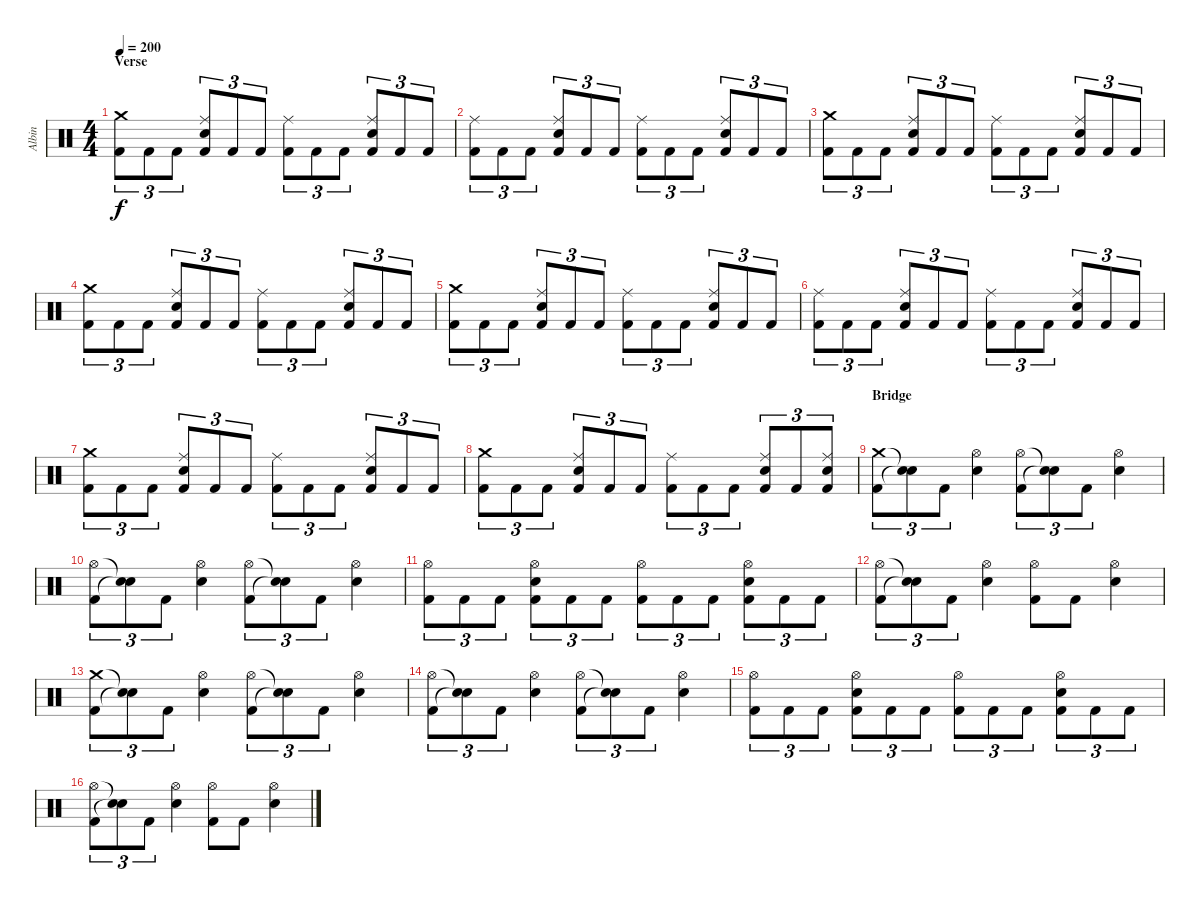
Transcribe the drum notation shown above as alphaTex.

\track ("Albin" "Albin") {instrument percussion}
\staff {score}
\articulation defaults
\ts (4 4)
\section ("" "Verse")
\tempo 200
\clef neutral
\ks c
("Crash medium (hit)" "Kick (hit) 2").8{tu (3 2) dy f} "Kick (hit) 2".8{tu (3 2)} "Kick (hit) 2".8{tu (3 2)} ("Ride (middle)" "Electric Snare (hit)" "Kick (hit) 2").8{tu (3 2)} "Kick (hit) 2".8{tu (3 2)} "Kick (hit) 2".8{tu (3 2)} ("Ride (middle)" "Kick (hit) 2").8{tu (3 2)} "Kick (hit) 2".8{tu (3 2)} "Kick (hit) 2".8{tu (3 2)} ("Ride (middle)" "Electric Snare (hit)" "Kick (hit) 2").8{tu (3 2)} "Kick (hit) 2".8{tu (3 2)} "Kick (hit) 2".8{tu (3 2)} |
("Ride (middle)" "Kick (hit) 2").8{tu (3 2)} "Kick (hit) 2".8{tu (3 2)} "Kick (hit) 2".8{tu (3 2)} ("Ride (middle)" "Electric Snare (hit)" "Kick (hit) 2").8{tu (3 2)} "Kick (hit) 2".8{tu (3 2)} "Kick (hit) 2".8{tu (3 2)} ("Ride (middle)" "Kick (hit) 2").8{tu (3 2)} "Kick (hit) 2".8{tu (3 2)} "Kick (hit) 2".8{tu (3 2)} ("Ride (middle)" "Electric Snare (hit)" "Kick (hit) 2").8{tu (3 2)} "Kick (hit) 2".8{tu (3 2)} "Kick (hit) 2".8{tu (3 2)} |
("Crash medium (hit)" "Kick (hit) 2").8{tu (3 2)} "Kick (hit) 2".8{tu (3 2)} "Kick (hit) 2".8{tu (3 2)} ("Ride (middle)" "Electric Snare (hit)" "Kick (hit) 2").8{tu (3 2)} "Kick (hit) 2".8{tu (3 2)} "Kick (hit) 2".8{tu (3 2)} ("Ride (middle)" "Kick (hit) 2").8{tu (3 2)} "Kick (hit) 2".8{tu (3 2)} "Kick (hit) 2".8{tu (3 2)} ("Ride (middle)" "Electric Snare (hit)" "Kick (hit) 2").8{tu (3 2)} "Kick (hit) 2".8{tu (3 2)} "Kick (hit) 2".8{tu (3 2)} |
("Crash medium (hit)" "Kick (hit) 2").8{tu (3 2)} "Kick (hit) 2".8{tu (3 2)} "Kick (hit) 2".8{tu (3 2)} ("Ride (middle)" "Electric Snare (hit)" "Kick (hit) 2").8{tu (3 2)} "Kick (hit) 2".8{tu (3 2)} "Kick (hit) 2".8{tu (3 2)} ("Ride (middle)" "Kick (hit) 2").8{tu (3 2)} "Kick (hit) 2".8{tu (3 2)} "Kick (hit) 2".8{tu (3 2)} ("Ride (middle)" "Electric Snare (hit)" "Kick (hit) 2").8{tu (3 2)} "Kick (hit) 2".8{tu (3 2)} "Kick (hit) 2".8{tu (3 2)} |
("Crash medium (hit)" "Kick (hit) 2").8{tu (3 2)} "Kick (hit) 2".8{tu (3 2)} "Kick (hit) 2".8{tu (3 2)} ("Ride (middle)" "Electric Snare (hit)" "Kick (hit) 2").8{tu (3 2)} "Kick (hit) 2".8{tu (3 2)} "Kick (hit) 2".8{tu (3 2)} ("Ride (middle)" "Kick (hit) 2").8{tu (3 2)} "Kick (hit) 2".8{tu (3 2)} "Kick (hit) 2".8{tu (3 2)} ("Ride (middle)" "Electric Snare (hit)" "Kick (hit) 2").8{tu (3 2)} "Kick (hit) 2".8{tu (3 2)} "Kick (hit) 2".8{tu (3 2)} |
("Ride (middle)" "Kick (hit) 2").8{tu (3 2)} "Kick (hit) 2".8{tu (3 2)} "Kick (hit) 2".8{tu (3 2)} ("Ride (middle)" "Electric Snare (hit)" "Kick (hit) 2").8{tu (3 2)} "Kick (hit) 2".8{tu (3 2)} "Kick (hit) 2".8{tu (3 2)} ("Ride (middle)" "Kick (hit) 2").8{tu (3 2)} "Kick (hit) 2".8{tu (3 2)} "Kick (hit) 2".8{tu (3 2)} ("Ride (middle)" "Electric Snare (hit)" "Kick (hit) 2").8{tu (3 2)} "Kick (hit) 2".8{tu (3 2)} "Kick (hit) 2".8{tu (3 2)} |
("Crash medium (hit)" "Kick (hit) 2").8{tu (3 2)} "Kick (hit) 2".8{tu (3 2)} "Kick (hit) 2".8{tu (3 2)} ("Ride (middle)" "Electric Snare (hit)" "Kick (hit) 2").8{tu (3 2)} "Kick (hit) 2".8{tu (3 2)} "Kick (hit) 2".8{tu (3 2)} ("Ride (middle)" "Kick (hit) 2").8{tu (3 2)} "Kick (hit) 2".8{tu (3 2)} "Kick (hit) 2".8{tu (3 2)} ("Ride (middle)" "Electric Snare (hit)" "Kick (hit) 2").8{tu (3 2)} "Kick (hit) 2".8{tu (3 2)} "Kick (hit) 2".8{tu (3 2)} |
("Crash medium (hit)" "Kick (hit) 2").8{tu (3 2)} "Kick (hit) 2".8{tu (3 2)} "Kick (hit) 2".8{tu (3 2)} ("Ride (middle)" "Electric Snare (hit)" "Kick (hit) 2").8{tu (3 2)} "Kick (hit) 2".8{tu (3 2)} "Kick (hit) 2".8{tu (3 2)} ("Ride (middle)" "Kick (hit) 2").8{tu (3 2)} "Kick (hit) 2".8{tu (3 2)} "Kick (hit) 2".8{tu (3 2)} ("Ride (middle)" "Electric Snare (hit)" "Kick (hit) 2").8{tu (3 2)} "Kick (hit) 2".8{tu (3 2)} ("Ride (middle)" "Electric Snare (hit)" "Kick (hit) 2").8{tu (3 2)} |
\section ("" "Bridge")
("Crash medium (hit)" "Kick (hit) 2").8{tu (3 2)} ("Snare (hit)"{t} "Snare (hit)"{t}).8{tu (3 2)} "Kick (hit) 2".8{tu (3 2)} ("Hi-Hat (open)" "Electric Snare (hit)").4 ("Hi-Hat (open)" "Kick (hit) 2").8{tu (3 2)} ("Snare (hit)"{t} "Snare (hit)"{t}).8{tu (3 2)} "Kick (hit) 2".8{tu (3 2)} ("Hi-Hat (open)" "Electric Snare (hit)").4 |
("Hi-Hat (open)" "Kick (hit) 2").8{tu (3 2)} ("Snare (hit)"{t} "Snare (hit)"{t}).8{tu (3 2)} "Kick (hit) 2".8{tu (3 2)} ("Hi-Hat (open)" "Electric Snare (hit)").4 ("Hi-Hat (open)" "Kick (hit) 2").8{tu (3 2)} ("Snare (hit)"{t} "Snare (hit)"{t}).8{tu (3 2)} "Kick (hit) 2".8{tu (3 2)} ("Hi-Hat (open)" "Electric Snare (hit)").4 |
("Hi-Hat (open)" "Kick (hit) 2").8{tu (3 2)} "Kick (hit) 2".8{tu (3 2)} "Kick (hit) 2".8{tu (3 2)} ("Hi-Hat (open)" "Electric Snare (hit)" "Kick (hit) 2").8{tu (3 2)} "Kick (hit) 2".8{tu (3 2)} "Kick (hit) 2".8{tu (3 2)} ("Hi-Hat (open)" "Kick (hit) 2").8{tu (3 2)} "Kick (hit) 2".8{tu (3 2)} "Kick (hit) 2".8{tu (3 2)} ("Hi-Hat (open)" "Electric Snare (hit)" "Kick (hit) 2").8{tu (3 2)} "Kick (hit) 2".8{tu (3 2)} "Kick (hit) 2".8{tu (3 2)} |
("Hi-Hat (open)" "Kick (hit) 2").8{tu (3 2)} ("Snare (hit)"{t} "Snare (hit)"{t}).8{tu (3 2)} "Kick (hit) 2".8{tu (3 2)} ("Hi-Hat (open)" "Electric Snare (hit)").4 ("Hi-Hat (open)" "Kick (hit) 2").8 "Kick (hit) 2".8 ("Hi-Hat (open)" "Electric Snare (hit)").4 |
("Crash medium (hit)" "Kick (hit) 2").8{tu (3 2)} ("Snare (hit)"{t} "Snare (hit)"{t}).8{tu (3 2)} "Kick (hit) 2".8{tu (3 2)} ("Hi-Hat (open)" "Electric Snare (hit)").4 ("Hi-Hat (open)" "Kick (hit) 2").8{tu (3 2)} ("Snare (hit)"{t} "Snare (hit)"{t}).8{tu (3 2)} "Kick (hit) 2".8{tu (3 2)} ("Hi-Hat (open)" "Electric Snare (hit)").4 |
("Hi-Hat (open)" "Kick (hit) 2").8{tu (3 2)} ("Snare (hit)"{t} "Snare (hit)"{t}).8{tu (3 2)} "Kick (hit) 2".8{tu (3 2)} ("Hi-Hat (open)" "Electric Snare (hit)").4 ("Hi-Hat (open)" "Kick (hit) 2").8{tu (3 2)} ("Snare (hit)"{t} "Snare (hit)"{t}).8{tu (3 2)} "Kick (hit) 2".8{tu (3 2)} ("Hi-Hat (open)" "Electric Snare (hit)").4 |
("Hi-Hat (open)" "Kick (hit) 2").8{tu (3 2)} "Kick (hit) 2".8{tu (3 2)} "Kick (hit) 2".8{tu (3 2)} ("Hi-Hat (open)" "Electric Snare (hit)" "Kick (hit) 2").8{tu (3 2)} "Kick (hit) 2".8{tu (3 2)} "Kick (hit) 2".8{tu (3 2)} ("Hi-Hat (open)" "Kick (hit) 2").8{tu (3 2)} "Kick (hit) 2".8{tu (3 2)} "Kick (hit) 2".8{tu (3 2)} ("Hi-Hat (open)" "Electric Snare (hit)" "Kick (hit) 2").8{tu (3 2)} "Kick (hit) 2".8{tu (3 2)} "Kick (hit) 2".8{tu (3 2)} |
("Hi-Hat (open)" "Kick (hit) 2").8{tu (3 2)} ("Snare (hit)"{t} "Snare (hit)"{t}).8{tu (3 2)} "Kick (hit) 2".8{tu (3 2)} ("Hi-Hat (open)" "Electric Snare (hit)").4 ("Hi-Hat (open)" "Kick (hit) 2").8 "Kick (hit) 2".8 ("Hi-Hat (open)" "Electric Snare (hit)").4
